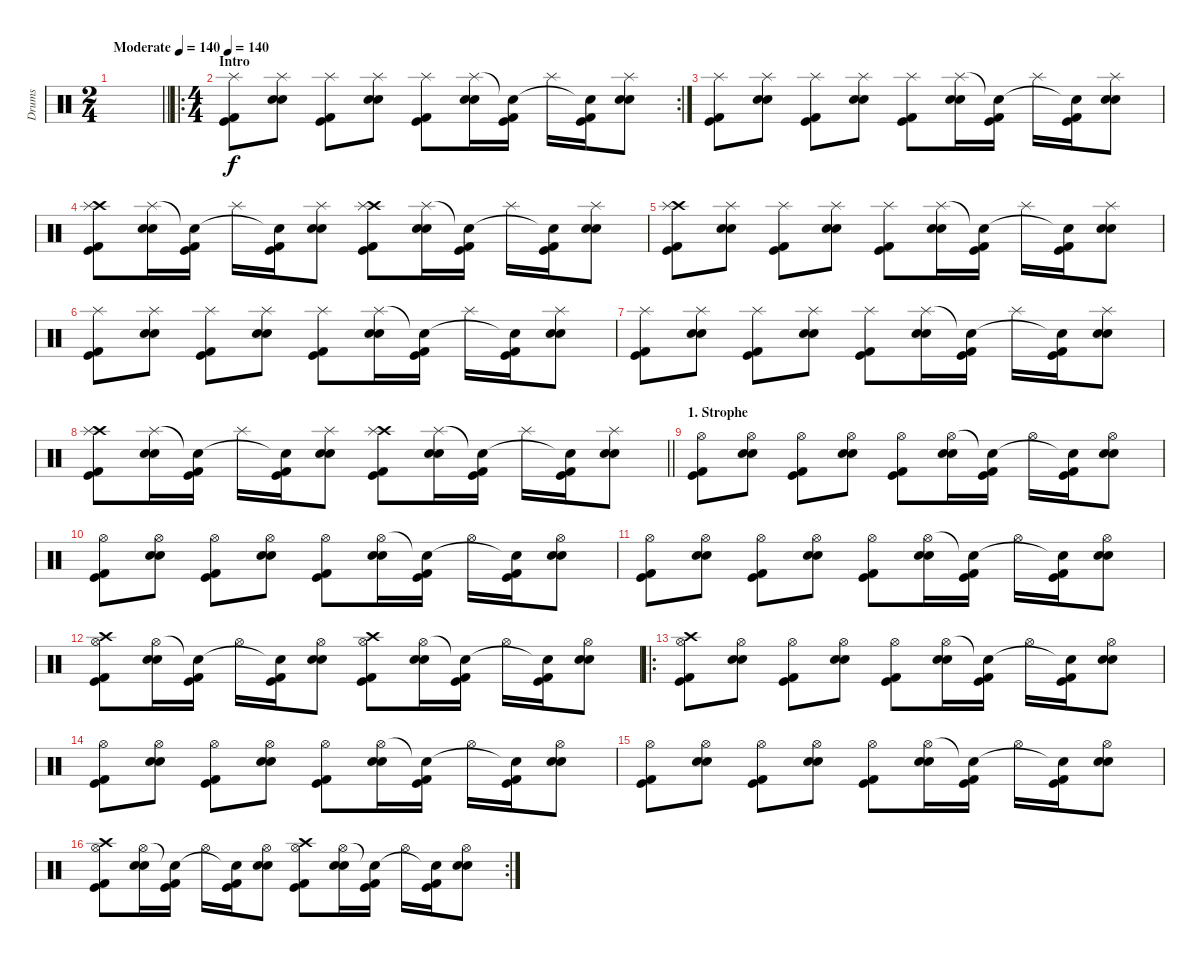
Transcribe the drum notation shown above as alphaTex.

\track ("Drums" "Drums") {instrument percussion}
\staff {score}
\articulation defaults
\ts (2 4)
\tempo (140 "Moderate")
\tempo 160
\tempo (140 "Moderate")
\clef neutral
\barLineRight lightlight
\ks c
|
\ro
\rc 2
\ts (4 4)
\section ("" "Intro")
\tempo 140
("Kick (hit) 2" "Splash (hit)" "Kick (hit)").8 ("Electric Snare (hit)" "Splash (hit)" "Snare (hit) 2").8 ("Kick (hit) 2" "Splash (hit)" "Kick (hit)").8 ("Electric Snare (hit)" "Splash (hit)" "Snare (hit) 2").8 ("Kick (hit) 2" "Splash (hit)" "Kick (hit)").8 ("Electric Snare (hit)" "Splash (hit)" "Snare (hit) 2").16 ("Kick (hit) 2" "Snare (hit)"{t} "Kick (hit)").16 "Splash (hit)".16 ("Kick (hit) 2" "Snare (hit)"{t} "Kick (hit)").16 ("Electric Snare (hit)" "Splash (hit)" "Snare (hit) 2").8 |
("Kick (hit) 2" "Splash (hit)" "Kick (hit)").8 ("Electric Snare (hit)" "Splash (hit)" "Snare (hit) 2").8 ("Kick (hit) 2" "Splash (hit)" "Kick (hit)").8 ("Electric Snare (hit)" "Splash (hit)" "Snare (hit) 2").8 ("Kick (hit) 2" "Splash (hit)" "Kick (hit)").8 ("Electric Snare (hit)" "Splash (hit)" "Snare (hit) 2").16 ("Kick (hit) 2" "Snare (hit)"{t} "Kick (hit)").16 "Splash (hit)".16 ("Kick (hit) 2" "Snare (hit)"{t} "Kick (hit)").16 ("Electric Snare (hit)" "Splash (hit)" "Snare (hit) 2").8 |
("Kick (hit) 2" "Crash high (hit)" "Splash (hit)" "Kick (hit)").8 ("Electric Snare (hit)" "Splash (hit)" "Snare (hit) 2").16 ("Kick (hit) 2" "Snare (hit)"{t} "Kick (hit)").16 "Splash (hit)".16 ("Kick (hit) 2" "Snare (hit)"{t} "Kick (hit)").16 ("Electric Snare (hit)" "Splash (hit)" "Snare (hit) 2").8 ("Kick (hit) 2" "Crash high (hit)" "Splash (hit)" "Kick (hit)").8 ("Electric Snare (hit)" "Splash (hit)" "Snare (hit) 2").16 ("Kick (hit) 2" "Snare (hit)"{t} "Kick (hit)").16 "Splash (hit)".16 ("Kick (hit) 2" "Snare (hit)"{t} "Kick (hit)").16 ("Electric Snare (hit)" "Splash (hit)" "Snare (hit) 2").8 |
("Kick (hit) 2" "Crash high (hit)" "Splash (hit)" "Kick (hit)").8 ("Electric Snare (hit)" "Splash (hit)" "Snare (hit) 2").8 ("Kick (hit) 2" "Splash (hit)" "Kick (hit)").8 ("Electric Snare (hit)" "Splash (hit)" "Snare (hit) 2").8 ("Kick (hit) 2" "Splash (hit)" "Kick (hit)").8 ("Electric Snare (hit)" "Splash (hit)" "Snare (hit) 2").16 ("Kick (hit) 2" "Snare (hit)"{t} "Kick (hit)").16 "Splash (hit)".16 ("Kick (hit) 2" "Snare (hit)"{t} "Kick (hit)").16 ("Electric Snare (hit)" "Splash (hit)" "Snare (hit) 2").8 |
("Kick (hit) 2" "Splash (hit)" "Kick (hit)").8 ("Electric Snare (hit)" "Splash (hit)" "Snare (hit) 2").8 ("Kick (hit) 2" "Splash (hit)" "Kick (hit)").8 ("Electric Snare (hit)" "Splash (hit)" "Snare (hit) 2").8 ("Kick (hit) 2" "Splash (hit)" "Kick (hit)").8 ("Electric Snare (hit)" "Splash (hit)" "Snare (hit) 2").16 ("Kick (hit) 2" "Snare (hit)"{t} "Kick (hit)").16 "Splash (hit)".16 ("Kick (hit) 2" "Snare (hit)"{t} "Kick (hit)").16 ("Electric Snare (hit)" "Splash (hit)" "Snare (hit) 2").8 |
("Kick (hit) 2" "Splash (hit)" "Kick (hit)").8 ("Electric Snare (hit)" "Splash (hit)" "Snare (hit) 2").8 ("Kick (hit) 2" "Splash (hit)" "Kick (hit)").8 ("Electric Snare (hit)" "Splash (hit)" "Snare (hit) 2").8 ("Kick (hit) 2" "Splash (hit)" "Kick (hit)").8 ("Electric Snare (hit)" "Splash (hit)" "Snare (hit) 2").16 ("Kick (hit) 2" "Snare (hit)"{t} "Kick (hit)").16 "Splash (hit)".16 ("Kick (hit) 2" "Snare (hit)"{t} "Kick (hit)").16 ("Electric Snare (hit)" "Splash (hit)" "Snare (hit) 2").8 |
\barLineRight lightlight
("Kick (hit) 2" "Crash high (hit)" "Splash (hit)" "Kick (hit)").8 ("Electric Snare (hit)" "Splash (hit)" "Snare (hit) 2").16 ("Kick (hit) 2" "Snare (hit)"{t} "Kick (hit)").16 "Splash (hit)".16 ("Kick (hit) 2" "Snare (hit)"{t} "Kick (hit)").16 ("Electric Snare (hit)" "Splash (hit)" "Snare (hit) 2").8 ("Kick (hit) 2" "Crash high (hit)" "Splash (hit)" "Kick (hit)").8 ("Electric Snare (hit)" "Splash (hit)" "Snare (hit) 2").16 ("Kick (hit) 2" "Snare (hit)"{t} "Kick (hit)").16 "Splash (hit)".16 ("Kick (hit) 2" "Snare (hit)"{t} "Kick (hit)").16 ("Electric Snare (hit)" "Splash (hit)" "Snare (hit) 2").8 |
\section ("" "1. Strophe")
("Kick (hit) 2" "Hi-Hat (open)" "Kick (hit)").8 ("Electric Snare (hit)" "Hi-Hat (open)" "Snare (hit) 2").8 ("Kick (hit) 2" "Hi-Hat (open)" "Kick (hit)").8 ("Electric Snare (hit)" "Hi-Hat (open)" "Snare (hit) 2").8 ("Kick (hit) 2" "Hi-Hat (open)" "Kick (hit)").8 ("Electric Snare (hit)" "Hi-Hat (open)" "Snare (hit) 2").16 ("Kick (hit) 2" "Snare (hit)"{t} "Kick (hit)").16 "Hi-Hat (open)".16 ("Kick (hit) 2" "Snare (hit)"{t} "Kick (hit)").16 ("Electric Snare (hit)" "Hi-Hat (open)" "Snare (hit) 2").8 |
("Kick (hit) 2" "Hi-Hat (open)" "Kick (hit)").8 ("Electric Snare (hit)" "Hi-Hat (open)" "Snare (hit) 2").8 ("Kick (hit) 2" "Hi-Hat (open)" "Kick (hit)").8 ("Electric Snare (hit)" "Hi-Hat (open)" "Snare (hit) 2").8 ("Kick (hit) 2" "Hi-Hat (open)" "Kick (hit)").8 ("Electric Snare (hit)" "Hi-Hat (open)" "Snare (hit) 2").16 ("Kick (hit) 2" "Snare (hit)"{t} "Kick (hit)").16 "Hi-Hat (open)".16 ("Kick (hit) 2" "Snare (hit)"{t} "Kick (hit)").16 ("Electric Snare (hit)" "Hi-Hat (open)" "Snare (hit) 2").8 |
("Kick (hit) 2" "Hi-Hat (open)" "Kick (hit)").8 ("Electric Snare (hit)" "Hi-Hat (open)" "Snare (hit) 2").8 ("Kick (hit) 2" "Hi-Hat (open)" "Kick (hit)").8 ("Electric Snare (hit)" "Hi-Hat (open)" "Snare (hit) 2").8 ("Kick (hit) 2" "Hi-Hat (open)" "Kick (hit)").8 ("Electric Snare (hit)" "Hi-Hat (open)" "Snare (hit) 2").16 ("Kick (hit) 2" "Snare (hit)"{t} "Kick (hit)").16 "Hi-Hat (open)".16 ("Kick (hit) 2" "Snare (hit)"{t} "Kick (hit)").16 ("Electric Snare (hit)" "Hi-Hat (open)" "Snare (hit) 2").8 |
("Kick (hit) 2" "Crash high (hit)" "Hi-Hat (open)" "Kick (hit)").8 ("Electric Snare (hit)" "Hi-Hat (open)" "Snare (hit) 2").16 ("Kick (hit) 2" "Snare (hit)"{t} "Kick (hit)").16 "Hi-Hat (open)".16 ("Kick (hit) 2" "Snare (hit)"{t} "Kick (hit)").16 ("Electric Snare (hit)" "Hi-Hat (open)" "Snare (hit) 2").8 ("Kick (hit) 2" "Crash high (hit)" "Hi-Hat (open)" "Kick (hit)").8 ("Electric Snare (hit)" "Hi-Hat (open)" "Snare (hit) 2").16 ("Kick (hit) 2" "Snare (hit)"{t} "Kick (hit)").16 "Hi-Hat (open)".16 ("Kick (hit) 2" "Snare (hit)"{t} "Kick (hit)").16 ("Electric Snare (hit)" "Hi-Hat (open)" "Snare (hit) 2").8 |
\ro
("Kick (hit) 2" "Crash high (hit)" "Hi-Hat (open)" "Kick (hit)").8 ("Electric Snare (hit)" "Hi-Hat (open)" "Snare (hit) 2").8 ("Kick (hit) 2" "Hi-Hat (open)" "Kick (hit)").8 ("Electric Snare (hit)" "Hi-Hat (open)" "Snare (hit) 2").8 ("Kick (hit) 2" "Hi-Hat (open)" "Kick (hit)").8 ("Electric Snare (hit)" "Hi-Hat (open)" "Snare (hit) 2").16 ("Kick (hit) 2" "Snare (hit)"{t} "Kick (hit)").16 "Hi-Hat (open)".16 ("Kick (hit) 2" "Snare (hit)"{t} "Kick (hit)").16 ("Electric Snare (hit)" "Hi-Hat (open)" "Snare (hit) 2").8 |
("Kick (hit) 2" "Hi-Hat (open)" "Kick (hit)").8 ("Electric Snare (hit)" "Hi-Hat (open)" "Snare (hit) 2").8 ("Kick (hit) 2" "Hi-Hat (open)" "Kick (hit)").8 ("Electric Snare (hit)" "Hi-Hat (open)" "Snare (hit) 2").8 ("Kick (hit) 2" "Hi-Hat (open)" "Kick (hit)").8 ("Electric Snare (hit)" "Hi-Hat (open)" "Snare (hit) 2").16 ("Kick (hit) 2" "Snare (hit)"{t} "Kick (hit)").16 "Hi-Hat (open)".16 ("Kick (hit) 2" "Snare (hit)"{t} "Kick (hit)").16 ("Electric Snare (hit)" "Hi-Hat (open)" "Snare (hit) 2").8 |
("Kick (hit) 2" "Hi-Hat (open)" "Kick (hit)").8 ("Electric Snare (hit)" "Hi-Hat (open)" "Snare (hit) 2").8 ("Kick (hit) 2" "Hi-Hat (open)" "Kick (hit)").8 ("Electric Snare (hit)" "Hi-Hat (open)" "Snare (hit) 2").8 ("Kick (hit) 2" "Hi-Hat (open)" "Kick (hit)").8 ("Electric Snare (hit)" "Hi-Hat (open)" "Snare (hit) 2").16 ("Kick (hit) 2" "Snare (hit)"{t} "Kick (hit)").16 "Hi-Hat (open)".16 ("Kick (hit) 2" "Snare (hit)"{t} "Kick (hit)").16 ("Electric Snare (hit)" "Hi-Hat (open)" "Snare (hit) 2").8 |
\rc 2
("Kick (hit) 2" "Crash high (hit)" "Hi-Hat (open)" "Kick (hit)").8 ("Electric Snare (hit)" "Hi-Hat (open)" "Snare (hit) 2").16 ("Kick (hit) 2" "Snare (hit)"{t} "Kick (hit)").16 "Hi-Hat (open)".16 ("Kick (hit) 2" "Snare (hit)"{t} "Kick (hit)").16 ("Electric Snare (hit)" "Hi-Hat (open)" "Snare (hit) 2").8 ("Kick (hit) 2" "Crash high (hit)" "Hi-Hat (open)" "Kick (hit)").8 ("Electric Snare (hit)" "Hi-Hat (open)" "Snare (hit) 2").16 ("Kick (hit) 2" "Snare (hit)"{t} "Kick (hit)").16 "Hi-Hat (open)".16 ("Kick (hit) 2" "Snare (hit)"{t} "Kick (hit)").16 ("Electric Snare (hit)" "Hi-Hat (open)" "Snare (hit) 2").8
